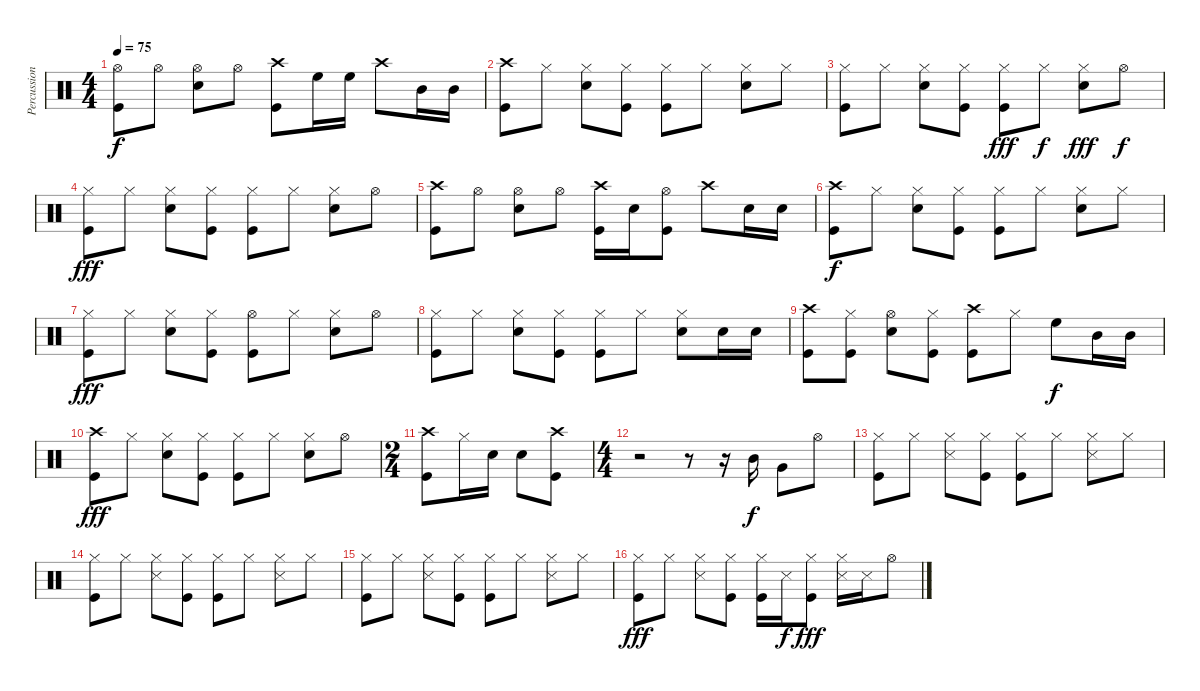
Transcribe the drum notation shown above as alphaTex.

\track ("Percussion" "Percussion") {instrument percussion}
\staff {score}
\articulation defaults
\ts (4 4)
\tempo 75
\clef neutral
\ks c
("Hi-Hat (open)" "Kick (hit)").8{dy f} "Hi-Hat (open)".8 ("Hi-Hat (open)" "Snare (hit) 2").8 "Hi-Hat (open)".8 ("Crash high (hit)" "Kick (hit)").8 "High Floor Tom (hit)".16 "High Floor Tom (hit)".16 "Crash high (hit)".8 "Mid Tom (hit)".16 "Mid Tom (hit)".16 |
("Crash high (hit)" "Kick (hit)").8 "Hi-Hat (closed)".8 ("Hi-Hat (closed)" "Snare (hit) 2").8 ("Hi-Hat (closed)" "Kick (hit)").8 ("Hi-Hat (closed)" "Kick (hit)").8 "Hi-Hat (closed)".8 ("Hi-Hat (closed)" "Snare (hit) 2").8 "Hi-Hat (closed)".8 |
("Hi-Hat (closed)" "Kick (hit)").8 "Hi-Hat (closed)".8 ("Hi-Hat (closed)" "Snare (hit) 2").8 ("Hi-Hat (closed)" "Kick (hit)").8 ("Hi-Hat (closed)" "Kick (hit)").8{dy fff} "Hi-Hat (closed)".8{dy f} ("Hi-Hat (closed)" "Snare (hit) 2").8{dy fff} "Hi-Hat (open)".8{dy f} |
("Hi-Hat (closed)" "Kick (hit)").8{dy fff} "Hi-Hat (closed)".8 ("Hi-Hat (closed)" "Snare (hit) 2").8 ("Hi-Hat (closed)" "Kick (hit)").8 ("Hi-Hat (closed)" "Kick (hit)").8 "Hi-Hat (closed)".8 ("Hi-Hat (closed)" "Snare (hit) 2").8 "Hi-Hat (open)".8 |
("Crash high (hit)" "Kick (hit)").8 "Hi-Hat (open)".8 ("Hi-Hat (open)" "Snare (hit) 2").8 "Hi-Hat (open)".8 ("Crash high (hit)" "Kick (hit)").16 "Snare (hit) 2".16 ("Hi-Hat (open)" "Kick (hit)").8 "Crash high (hit)".8 "Snare (hit) 2".16 "Snare (hit) 2".16 |
("Crash high (hit)" "Kick (hit)").8{dy f} "Hi-Hat (closed)".8 ("Hi-Hat (closed)" "Snare (hit) 2").8 ("Hi-Hat (closed)" "Kick (hit)").8 ("Hi-Hat (closed)" "Kick (hit)").8 "Hi-Hat (closed)".8 ("Hi-Hat (closed)" "Snare (hit) 2").8 "Hi-Hat (closed)".8 |
("Hi-Hat (closed)" "Kick (hit)").8{dy fff} "Hi-Hat (closed)".8 ("Hi-Hat (closed)" "Snare (hit) 2").8 ("Hi-Hat (closed)" "Kick (hit)").8 ("Hi-Hat (open)" "Kick (hit)").8 "Hi-Hat (closed)".8 ("Hi-Hat (closed)" "Snare (hit) 2").8 "Hi-Hat (open)".8 |
("Hi-Hat (closed)" "Kick (hit)").8 "Hi-Hat (closed)".8 ("Hi-Hat (closed)" "Snare (hit) 2").8 ("Hi-Hat (closed)" "Kick (hit)").8 ("Hi-Hat (closed)" "Kick (hit)").8 "Hi-Hat (closed)".8 ("Hi-Hat (closed)" "Snare (hit) 2").8 "Snare (hit) 2".16 "Snare (hit) 2".16 |
("Crash high (hit)" "Kick (hit)").8 ("Hi-Hat (closed)" "Kick (hit)").8 ("Hi-Hat (open)" "Snare (hit) 2").8 ("Hi-Hat (closed)" "Kick (hit)").8 ("Crash high (hit)" "Kick (hit)").8 "Hi-Hat (closed)".8 "High Floor Tom (hit)".8{dy f} "Mid Tom (hit)".16 "Mid Tom (hit)".16 |
("Crash high (hit)" "Kick (hit)").8{dy fff} "Hi-Hat (closed)".8 ("Hi-Hat (closed)" "Snare (hit) 2").8 ("Hi-Hat (closed)" "Kick (hit)").8 ("Hi-Hat (closed)" "Kick (hit)").8 "Hi-Hat (closed)".8 ("Hi-Hat (closed)" "Snare (hit) 2").8 "Hi-Hat (open)".8 |
\ts (2 4)
("Crash high (hit)" "Kick (hit)").8 "Hi-Hat (closed)".16 "Snare (hit) 2".16 "Snare (hit) 2".8 ("Crash high (hit)" "Kick (hit)").8 |
\ts (4 4)
r.2 r.8 r.16 "Mid Tom (hit)".16{dy f} "Very Low Tom (hit)".8 "Hi-Hat (open)".8 |
("Hi-Hat (closed)" "Kick (hit)").8 "Hi-Hat (closed)".8 ("Hi-Hat (closed)" "Snare (side stick) 3").8 ("Hi-Hat (closed)" "Kick (hit)").8 ("Hi-Hat (closed)" "Kick (hit)").8 "Hi-Hat (closed)".8 ("Hi-Hat (closed)" "Snare (side stick) 3").8 "Hi-Hat (closed)".8 |
("Hi-Hat (closed)" "Kick (hit)").8 "Hi-Hat (closed)".8 ("Hi-Hat (closed)" "Snare (side stick) 3").8 ("Hi-Hat (closed)" "Kick (hit)").8 ("Hi-Hat (closed)" "Kick (hit)").8 "Hi-Hat (closed)".8 ("Hi-Hat (closed)" "Snare (side stick) 3").8 "Hi-Hat (closed)".8 |
("Hi-Hat (closed)" "Kick (hit)").8 "Hi-Hat (closed)".8 ("Hi-Hat (closed)" "Snare (side stick) 3").8 ("Hi-Hat (closed)" "Kick (hit)").8 ("Hi-Hat (closed)" "Kick (hit)").8 "Hi-Hat (closed)".8 ("Hi-Hat (closed)" "Snare (side stick) 3").8 "Hi-Hat (closed)".8 |
("Hi-Hat (closed)" "Kick (hit)").8{dy fff} "Hi-Hat (closed)".8 ("Hi-Hat (closed)" "Snare (side stick) 3").8 ("Hi-Hat (closed)" "Kick (hit)").8 ("Hi-Hat (closed)" "Kick (hit)").16 "Snare (side stick) 3".16{dy f} ("Hi-Hat (closed)" "Kick (hit)").8{dy fff} ("Hi-Hat (closed)" "Snare (side stick) 3").16 "Snare (side stick) 3".16 "Hi-Hat (open)".8
